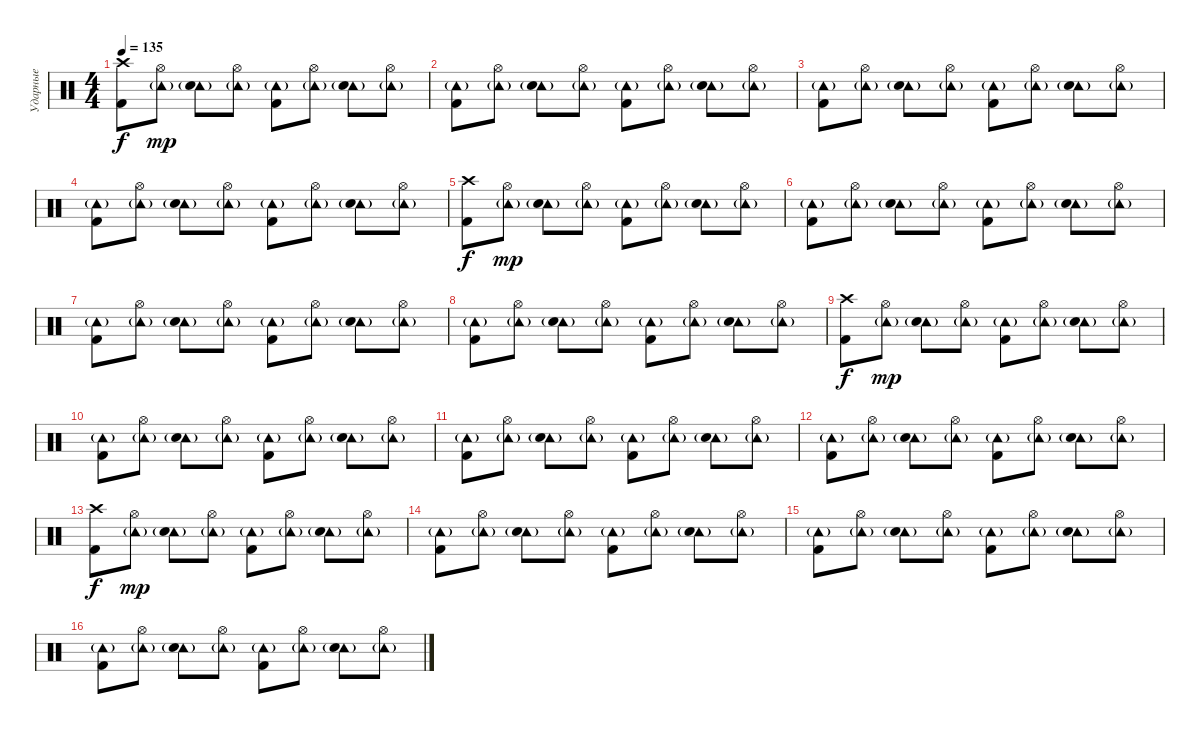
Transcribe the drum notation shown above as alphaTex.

\track ("Ударные" "Ударные") {instrument percussion}
\staff {score}
\articulation defaults
\ts (4 4)
\tempo 135
\clef neutral
\ks c
("Crash high (hit)" "Kick (hit) 2").8{dy f} ("Tambourine (hit)"{g} "Hi-Hat (open)").8{dy mp} ("Tambourine (hit)"{g} "Electric Snare (hit)").8 ("Tambourine (hit)"{g} "Hi-Hat (open)").8 ("Tambourine (hit)"{g} "Kick (hit) 2").8 ("Tambourine (hit)"{g} "Hi-Hat (open)").8 ("Tambourine (hit)"{g} "Electric Snare (hit)").8 ("Tambourine (hit)"{g} "Hi-Hat (open)").8 |
("Tambourine (hit)"{g} "Kick (hit) 2").8 ("Tambourine (hit)"{g} "Hi-Hat (open)").8 ("Tambourine (hit)"{g} "Electric Snare (hit)").8 ("Tambourine (hit)"{g} "Hi-Hat (open)").8 ("Tambourine (hit)"{g} "Kick (hit) 2").8 ("Tambourine (hit)"{g} "Hi-Hat (open)").8 ("Tambourine (hit)"{g} "Electric Snare (hit)").8 ("Tambourine (hit)"{g} "Hi-Hat (open)").8 |
("Tambourine (hit)"{g} "Kick (hit) 2").8 ("Tambourine (hit)"{g} "Hi-Hat (open)").8 ("Tambourine (hit)"{g} "Electric Snare (hit)").8 ("Tambourine (hit)"{g} "Hi-Hat (open)").8 ("Tambourine (hit)"{g} "Kick (hit) 2").8 ("Tambourine (hit)"{g} "Hi-Hat (open)").8 ("Tambourine (hit)"{g} "Electric Snare (hit)").8 ("Tambourine (hit)"{g} "Hi-Hat (open)").8 |
("Tambourine (hit)"{g} "Kick (hit) 2").8 ("Tambourine (hit)"{g} "Hi-Hat (open)").8 ("Tambourine (hit)"{g} "Electric Snare (hit)").8 ("Tambourine (hit)"{g} "Hi-Hat (open)").8 ("Tambourine (hit)"{g} "Kick (hit) 2").8 ("Tambourine (hit)"{g} "Hi-Hat (open)").8 ("Tambourine (hit)"{g} "Electric Snare (hit)").8 ("Tambourine (hit)"{g} "Hi-Hat (open)").8 |
("Crash high (hit)" "Kick (hit) 2").8{dy f} ("Tambourine (hit)"{g} "Hi-Hat (open)").8{dy mp} ("Tambourine (hit)"{g} "Electric Snare (hit)").8 ("Tambourine (hit)"{g} "Hi-Hat (open)").8 ("Tambourine (hit)"{g} "Kick (hit) 2").8 ("Tambourine (hit)"{g} "Hi-Hat (open)").8 ("Tambourine (hit)"{g} "Electric Snare (hit)").8 ("Tambourine (hit)"{g} "Hi-Hat (open)").8 |
("Tambourine (hit)"{g} "Kick (hit) 2").8 ("Tambourine (hit)"{g} "Hi-Hat (open)").8 ("Tambourine (hit)"{g} "Electric Snare (hit)").8 ("Tambourine (hit)"{g} "Hi-Hat (open)").8 ("Tambourine (hit)"{g} "Kick (hit) 2").8 ("Tambourine (hit)"{g} "Hi-Hat (open)").8 ("Tambourine (hit)"{g} "Electric Snare (hit)").8 ("Tambourine (hit)"{g} "Hi-Hat (open)").8 |
("Tambourine (hit)"{g} "Kick (hit) 2").8 ("Tambourine (hit)"{g} "Hi-Hat (open)").8 ("Tambourine (hit)"{g} "Electric Snare (hit)").8 ("Tambourine (hit)"{g} "Hi-Hat (open)").8 ("Tambourine (hit)"{g} "Kick (hit) 2").8 ("Tambourine (hit)"{g} "Hi-Hat (open)").8 ("Tambourine (hit)"{g} "Electric Snare (hit)").8 ("Tambourine (hit)"{g} "Hi-Hat (open)").8 |
("Tambourine (hit)"{g} "Kick (hit) 2").8 ("Tambourine (hit)"{g} "Hi-Hat (open)").8 ("Tambourine (hit)"{g} "Electric Snare (hit)").8 ("Tambourine (hit)"{g} "Hi-Hat (open)").8 ("Tambourine (hit)"{g} "Kick (hit) 2").8 ("Tambourine (hit)"{g} "Hi-Hat (open)").8 ("Tambourine (hit)"{g} "Electric Snare (hit)").8 ("Tambourine (hit)"{g} "Hi-Hat (open)").8 |
("Crash high (hit)" "Kick (hit) 2").8{dy f} ("Tambourine (hit)"{g} "Hi-Hat (open)").8{dy mp} ("Tambourine (hit)"{g} "Electric Snare (hit)").8 ("Tambourine (hit)"{g} "Hi-Hat (open)").8 ("Tambourine (hit)"{g} "Kick (hit) 2").8 ("Tambourine (hit)"{g} "Hi-Hat (open)").8 ("Tambourine (hit)"{g} "Electric Snare (hit)").8 ("Tambourine (hit)"{g} "Hi-Hat (open)").8 |
("Tambourine (hit)"{g} "Kick (hit) 2").8 ("Tambourine (hit)"{g} "Hi-Hat (open)").8 ("Tambourine (hit)"{g} "Electric Snare (hit)").8 ("Tambourine (hit)"{g} "Hi-Hat (open)").8 ("Tambourine (hit)"{g} "Kick (hit) 2").8 ("Tambourine (hit)"{g} "Hi-Hat (open)").8 ("Tambourine (hit)"{g} "Electric Snare (hit)").8 ("Tambourine (hit)"{g} "Hi-Hat (open)").8 |
("Tambourine (hit)"{g} "Kick (hit) 2").8 ("Tambourine (hit)"{g} "Hi-Hat (open)").8 ("Tambourine (hit)"{g} "Electric Snare (hit)").8 ("Tambourine (hit)"{g} "Hi-Hat (open)").8 ("Tambourine (hit)"{g} "Kick (hit) 2").8 ("Tambourine (hit)"{g} "Hi-Hat (open)").8 ("Tambourine (hit)"{g} "Electric Snare (hit)").8 ("Tambourine (hit)"{g} "Hi-Hat (open)").8 |
("Tambourine (hit)"{g} "Kick (hit) 2").8 ("Tambourine (hit)"{g} "Hi-Hat (open)").8 ("Tambourine (hit)"{g} "Electric Snare (hit)").8 ("Tambourine (hit)"{g} "Hi-Hat (open)").8 ("Tambourine (hit)"{g} "Kick (hit) 2").8 ("Tambourine (hit)"{g} "Hi-Hat (open)").8 ("Tambourine (hit)"{g} "Electric Snare (hit)").8 ("Tambourine (hit)"{g} "Hi-Hat (open)").8 |
("Crash high (hit)" "Kick (hit) 2").8{dy f} ("Tambourine (hit)"{g} "Hi-Hat (open)").8{dy mp} ("Tambourine (hit)"{g} "Electric Snare (hit)").8 ("Tambourine (hit)"{g} "Hi-Hat (open)").8 ("Tambourine (hit)"{g} "Kick (hit) 2").8 ("Tambourine (hit)"{g} "Hi-Hat (open)").8 ("Tambourine (hit)"{g} "Electric Snare (hit)").8 ("Tambourine (hit)"{g} "Hi-Hat (open)").8 |
("Tambourine (hit)"{g} "Kick (hit) 2").8 ("Tambourine (hit)"{g} "Hi-Hat (open)").8 ("Tambourine (hit)"{g} "Electric Snare (hit)").8 ("Tambourine (hit)"{g} "Hi-Hat (open)").8 ("Tambourine (hit)"{g} "Kick (hit) 2").8 ("Tambourine (hit)"{g} "Hi-Hat (open)").8 ("Tambourine (hit)"{g} "Electric Snare (hit)").8 ("Tambourine (hit)"{g} "Hi-Hat (open)").8 |
("Tambourine (hit)"{g} "Kick (hit) 2").8 ("Tambourine (hit)"{g} "Hi-Hat (open)").8 ("Tambourine (hit)"{g} "Electric Snare (hit)").8 ("Tambourine (hit)"{g} "Hi-Hat (open)").8 ("Tambourine (hit)"{g} "Kick (hit) 2").8 ("Tambourine (hit)"{g} "Hi-Hat (open)").8 ("Tambourine (hit)"{g} "Electric Snare (hit)").8 ("Tambourine (hit)"{g} "Hi-Hat (open)").8 |
("Tambourine (hit)"{g} "Kick (hit) 2").8 ("Tambourine (hit)"{g} "Hi-Hat (open)").8 ("Tambourine (hit)"{g} "Electric Snare (hit)").8 ("Tambourine (hit)"{g} "Hi-Hat (open)").8 ("Tambourine (hit)"{g} "Kick (hit) 2").8 ("Tambourine (hit)"{g} "Hi-Hat (open)").8 ("Tambourine (hit)"{g} "Electric Snare (hit)").8 ("Tambourine (hit)"{g} "Hi-Hat (open)").8
